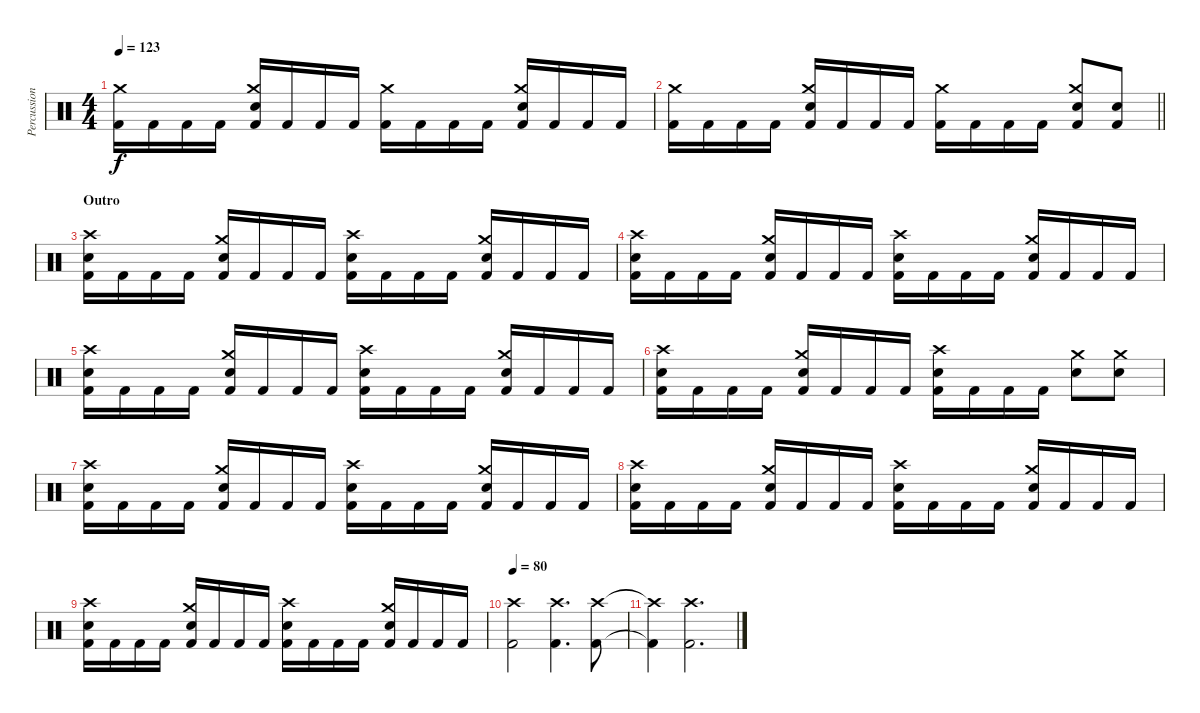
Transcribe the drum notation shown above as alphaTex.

\track ("Percussion" "Percussion") {instrument percussion}
\staff {score}
\articulation defaults
\ts (4 4)
\tempo 123
\clef neutral
\ks c
("Kick (hit) 2" "Crash medium (hit)").16{dy f} "Kick (hit) 2".16 "Kick (hit) 2".16 "Kick (hit) 2".16 ("Snare (hit) 2" "Kick (hit) 2" "Crash medium (hit)").16 "Kick (hit) 2".16 "Kick (hit) 2".16 "Kick (hit) 2".16 ("Kick (hit) 2" "Crash medium (hit)").16 "Kick (hit) 2".16 "Kick (hit) 2".16 "Kick (hit) 2".16 ("Snare (hit) 2" "Kick (hit) 2" "Crash medium (hit)").16 "Kick (hit) 2".16 "Kick (hit) 2".16 "Kick (hit) 2".16 |
\barLineRight lightlight
("Kick (hit) 2" "Crash medium (hit)").16 "Kick (hit) 2".16 "Kick (hit) 2".16 "Kick (hit) 2".16 ("Snare (hit) 2" "Kick (hit) 2" "Crash medium (hit)").16 "Kick (hit) 2".16 "Kick (hit) 2".16 "Kick (hit) 2".16 ("Kick (hit) 2" "Crash medium (hit)").16 "Kick (hit) 2".16 "Kick (hit) 2".16 "Kick (hit) 2".16 ("Snare (hit) 2" "Kick (hit) 2" "Crash medium (hit)").8 ("Snare (hit) 2" "Kick (hit) 2").8 |
\section ("" "Outro")
("Snare (hit) 2" "Kick (hit) 2" "Crash high (hit)").16 "Kick (hit) 2".16 "Kick (hit) 2".16 "Kick (hit) 2".16 ("Snare (hit) 2" "Kick (hit) 2" "Crash medium (hit)").16 "Kick (hit) 2".16 "Kick (hit) 2".16 "Kick (hit) 2".16 ("Snare (hit) 2" "Kick (hit) 2" "Crash high (hit)").16 "Kick (hit) 2".16 "Kick (hit) 2".16 "Kick (hit) 2".16 ("Snare (hit) 2" "Kick (hit) 2" "Crash medium (hit)").16 "Kick (hit) 2".16 "Kick (hit) 2".16 "Kick (hit) 2".16 |
("Snare (hit) 2" "Kick (hit) 2" "Crash high (hit)").16 "Kick (hit) 2".16 "Kick (hit) 2".16 "Kick (hit) 2".16 ("Snare (hit) 2" "Kick (hit) 2" "Crash medium (hit)").16 "Kick (hit) 2".16 "Kick (hit) 2".16 "Kick (hit) 2".16 ("Snare (hit) 2" "Kick (hit) 2" "Crash high (hit)").16 "Kick (hit) 2".16 "Kick (hit) 2".16 "Kick (hit) 2".16 ("Snare (hit) 2" "Kick (hit) 2" "Crash medium (hit)").16 "Kick (hit) 2".16 "Kick (hit) 2".16 "Kick (hit) 2".16 |
("Snare (hit) 2" "Kick (hit) 2" "Crash high (hit)").16 "Kick (hit) 2".16 "Kick (hit) 2".16 "Kick (hit) 2".16 ("Snare (hit) 2" "Kick (hit) 2" "Crash medium (hit)").16 "Kick (hit) 2".16 "Kick (hit) 2".16 "Kick (hit) 2".16 ("Snare (hit) 2" "Kick (hit) 2" "Crash high (hit)").16 "Kick (hit) 2".16 "Kick (hit) 2".16 "Kick (hit) 2".16 ("Snare (hit) 2" "Kick (hit) 2" "Crash medium (hit)").16 "Kick (hit) 2".16 "Kick (hit) 2".16 "Kick (hit) 2".16 |
("Snare (hit) 2" "Kick (hit) 2" "Crash high (hit)").16 "Kick (hit) 2".16 "Kick (hit) 2".16 "Kick (hit) 2".16 ("Snare (hit) 2" "Kick (hit) 2" "Crash medium (hit)").16 "Kick (hit) 2".16 "Kick (hit) 2".16 "Kick (hit) 2".16 ("Snare (hit) 2" "Kick (hit) 2" "Crash high (hit)").16 "Kick (hit) 2".16 "Kick (hit) 2".16 "Kick (hit) 2".16 ("Snare (hit) 2" "Crash medium (hit)").8 ("Snare (hit) 2" "Crash medium (hit)").8 |
("Snare (hit) 2" "Kick (hit) 2" "Crash high (hit)").16 "Kick (hit) 2".16 "Kick (hit) 2".16 "Kick (hit) 2".16 ("Snare (hit) 2" "Kick (hit) 2" "Crash medium (hit)").16 "Kick (hit) 2".16 "Kick (hit) 2".16 "Kick (hit) 2".16 ("Snare (hit) 2" "Kick (hit) 2" "Crash high (hit)").16 "Kick (hit) 2".16 "Kick (hit) 2".16 "Kick (hit) 2".16 ("Snare (hit) 2" "Kick (hit) 2" "Crash medium (hit)").16 "Kick (hit) 2".16 "Kick (hit) 2".16 "Kick (hit) 2".16 |
("Snare (hit) 2" "Kick (hit) 2" "Crash high (hit)").16 "Kick (hit) 2".16 "Kick (hit) 2".16 "Kick (hit) 2".16 ("Snare (hit) 2" "Kick (hit) 2" "Crash medium (hit)").16 "Kick (hit) 2".16 "Kick (hit) 2".16 "Kick (hit) 2".16 ("Snare (hit) 2" "Kick (hit) 2" "Crash high (hit)").16 "Kick (hit) 2".16 "Kick (hit) 2".16 "Kick (hit) 2".16 ("Snare (hit) 2" "Kick (hit) 2" "Crash medium (hit)").16 "Kick (hit) 2".16 "Kick (hit) 2".16 "Kick (hit) 2".16 |
("Snare (hit) 2" "Kick (hit) 2" "Crash high (hit)").16 "Kick (hit) 2".16 "Kick (hit) 2".16 "Kick (hit) 2".16 ("Snare (hit) 2" "Kick (hit) 2" "Crash medium (hit)").16 "Kick (hit) 2".16 "Kick (hit) 2".16 "Kick (hit) 2".16 ("Snare (hit) 2" "Kick (hit) 2" "Crash high (hit)").16 "Kick (hit) 2".16 "Kick (hit) 2".16 "Kick (hit) 2".16 ("Snare (hit) 2" "Kick (hit) 2" "Crash medium (hit)").16 "Kick (hit) 2".16 "Kick (hit) 2".16 "Kick (hit) 2".16 |
\tempo 80
("Kick (hit) 2" "Crash high (hit)").2 ("Kick (hit) 2" "Crash high (hit)").4{d} ("Kick (hit) 2" "Crash high (hit)").8 |
("Kick (hit) 2"{t} "Crash high (hit)"{t}).4 ("Kick (hit) 2" "Crash high (hit)").2{d}
